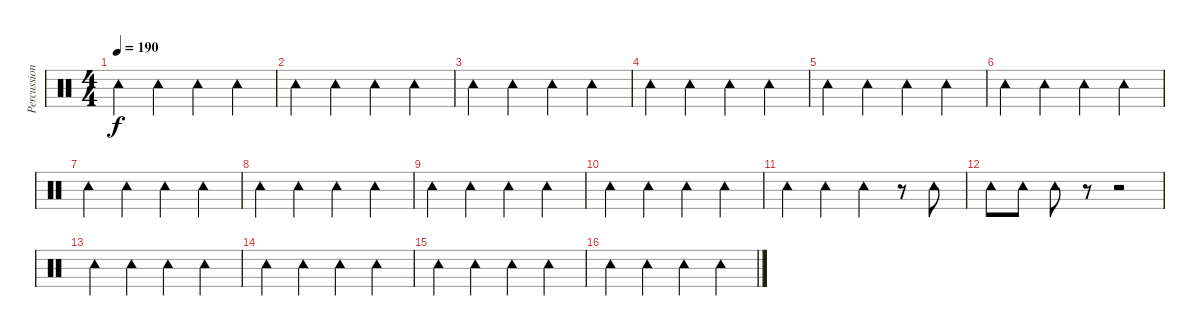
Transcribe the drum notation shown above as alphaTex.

\track ("Percussion" "Percussion") {instrument percussion}
\staff {score}
\articulation defaults
\ts (4 4)
\tempo 190
\clef neutral
\ks c "Tambourine (hit)".4{dy f} "Tambourine (hit)".4 "Tambourine (hit)".4 "Tambourine (hit)".4
|
"Tambourine (hit)".4 "Tambourine (hit)".4 "Tambourine (hit)".4 "Tambourine (hit)".4 |
"Tambourine (hit)".4 "Tambourine (hit)".4 "Tambourine (hit)".4 "Tambourine (hit)".4 |
"Tambourine (hit)".4 "Tambourine (hit)".4 "Tambourine (hit)".4 "Tambourine (hit)".4 |
"Tambourine (hit)".4 "Tambourine (hit)".4 "Tambourine (hit)".4 "Tambourine (hit)".4 |
"Tambourine (hit)".4 "Tambourine (hit)".4 "Tambourine (hit)".4 "Tambourine (hit)".4 |
"Tambourine (hit)".4 "Tambourine (hit)".4 "Tambourine (hit)".4 "Tambourine (hit)".4 |
"Tambourine (hit)".4 "Tambourine (hit)".4 "Tambourine (hit)".4 "Tambourine (hit)".4 |
"Tambourine (hit)".4 "Tambourine (hit)".4 "Tambourine (hit)".4 "Tambourine (hit)".4 |
"Tambourine (hit)".4 "Tambourine (hit)".4 "Tambourine (hit)".4 "Tambourine (hit)".4 |
"Tambourine (hit)".4 "Tambourine (hit)".4 "Tambourine (hit)".4 r.8 "Tambourine (hit)".8 |
"Tambourine (hit)".8 "Tambourine (hit)".8 "Tambourine (hit)".8 r.8 r.2 |
"Tambourine (hit)".4 "Tambourine (hit)".4 "Tambourine (hit)".4 "Tambourine (hit)".4 |
"Tambourine (hit)".4 "Tambourine (hit)".4 "Tambourine (hit)".4 "Tambourine (hit)".4 |
"Tambourine (hit)".4 "Tambourine (hit)".4 "Tambourine (hit)".4 "Tambourine (hit)".4 |
"Tambourine (hit)".4 "Tambourine (hit)".4 "Tambourine (hit)".4 "Tambourine (hit)".4
